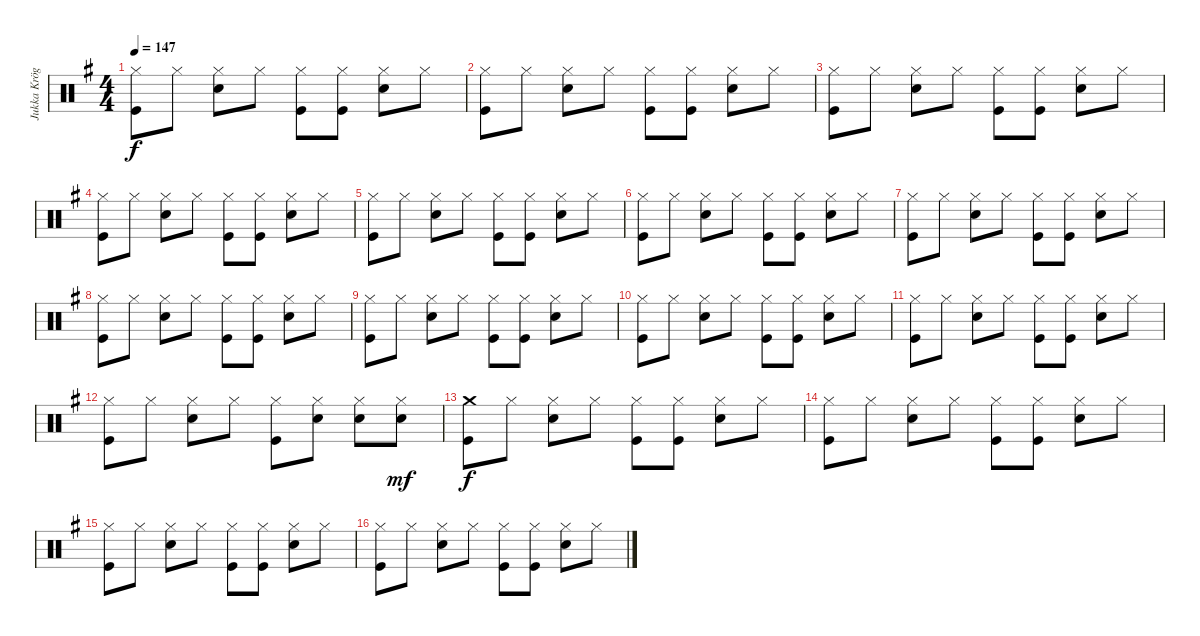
\track ("Jukka Kröger" "Jukka Krög") {instrument percussion}
\staff {score}
\articulation defaults
\ts (4 4)
\tempo 147
\clef neutral
\ks eminor
("Hi-Hat (closed)" "Kick (hit)").8{dy f} "Hi-Hat (closed)".8 ("Hi-Hat (closed)" "Snare (hit) 2").8 "Hi-Hat (closed)".8 ("Hi-Hat (closed)" "Kick (hit)").8 ("Hi-Hat (closed)" "Kick (hit)").8 ("Hi-Hat (closed)" "Snare (hit) 2").8 "Hi-Hat (closed)".8 |
("Hi-Hat (closed)" "Kick (hit)").8 "Hi-Hat (closed)".8 ("Hi-Hat (closed)" "Snare (hit) 2").8 "Hi-Hat (closed)".8 ("Hi-Hat (closed)" "Kick (hit)").8 ("Hi-Hat (closed)" "Kick (hit)").8 ("Hi-Hat (closed)" "Snare (hit) 2").8 "Hi-Hat (closed)".8 |
("Hi-Hat (closed)" "Kick (hit)").8 "Hi-Hat (closed)".8 ("Hi-Hat (closed)" "Snare (hit) 2").8 "Hi-Hat (closed)".8 ("Hi-Hat (closed)" "Kick (hit)").8 ("Hi-Hat (closed)" "Kick (hit)").8 ("Hi-Hat (closed)" "Snare (hit) 2").8 "Hi-Hat (closed)".8 |
("Hi-Hat (closed)" "Kick (hit)").8 "Hi-Hat (closed)".8 ("Hi-Hat (closed)" "Snare (hit) 2").8 "Hi-Hat (closed)".8 ("Hi-Hat (closed)" "Kick (hit)").8 ("Hi-Hat (closed)" "Kick (hit)").8 ("Hi-Hat (closed)" "Snare (hit) 2").8 "Hi-Hat (closed)".8 |
("Hi-Hat (closed)" "Kick (hit)").8 "Hi-Hat (closed)".8 ("Hi-Hat (closed)" "Snare (hit) 2").8 "Hi-Hat (closed)".8 ("Hi-Hat (closed)" "Kick (hit)").8 ("Hi-Hat (closed)" "Kick (hit)").8 ("Hi-Hat (closed)" "Snare (hit) 2").8 "Hi-Hat (closed)".8 |
("Hi-Hat (closed)" "Kick (hit)").8 "Hi-Hat (closed)".8 ("Hi-Hat (closed)" "Snare (hit) 2").8 "Hi-Hat (closed)".8 ("Hi-Hat (closed)" "Kick (hit)").8 ("Hi-Hat (closed)" "Kick (hit)").8 ("Hi-Hat (closed)" "Snare (hit) 2").8 "Hi-Hat (closed)".8 |
("Hi-Hat (closed)" "Kick (hit)").8 "Hi-Hat (closed)".8 ("Hi-Hat (closed)" "Snare (hit) 2").8 "Hi-Hat (closed)".8 ("Hi-Hat (closed)" "Kick (hit)").8 ("Hi-Hat (closed)" "Kick (hit)").8 ("Hi-Hat (closed)" "Snare (hit) 2").8 "Hi-Hat (closed)".8 |
("Hi-Hat (closed)" "Kick (hit)").8 "Hi-Hat (closed)".8 ("Hi-Hat (closed)" "Snare (hit) 2").8 "Hi-Hat (closed)".8 ("Hi-Hat (closed)" "Kick (hit)").8 ("Hi-Hat (closed)" "Kick (hit)").8 ("Hi-Hat (closed)" "Snare (hit) 2").8 "Hi-Hat (closed)".8 |
("Hi-Hat (closed)" "Kick (hit)").8 "Hi-Hat (closed)".8 ("Hi-Hat (closed)" "Snare (hit) 2").8 "Hi-Hat (closed)".8 ("Hi-Hat (closed)" "Kick (hit)").8 ("Hi-Hat (closed)" "Kick (hit)").8 ("Hi-Hat (closed)" "Snare (hit) 2").8 "Hi-Hat (closed)".8 |
("Hi-Hat (closed)" "Kick (hit)").8 "Hi-Hat (closed)".8 ("Hi-Hat (closed)" "Snare (hit) 2").8 "Hi-Hat (closed)".8 ("Hi-Hat (closed)" "Kick (hit)").8 ("Hi-Hat (closed)" "Kick (hit)").8 ("Hi-Hat (closed)" "Snare (hit) 2").8 "Hi-Hat (closed)".8 |
("Hi-Hat (closed)" "Kick (hit)").8 "Hi-Hat (closed)".8 ("Hi-Hat (closed)" "Snare (hit) 2").8 "Hi-Hat (closed)".8 ("Hi-Hat (closed)" "Kick (hit)").8 ("Hi-Hat (closed)" "Kick (hit)").8 ("Hi-Hat (closed)" "Snare (hit) 2").8 "Hi-Hat (closed)".8 |
("Hi-Hat (closed)" "Kick (hit)").8 "Hi-Hat (closed)".8 ("Hi-Hat (closed)" "Snare (hit) 2").8 "Hi-Hat (closed)".8 ("Hi-Hat (closed)" "Kick (hit)").8 ("Hi-Hat (closed)" "Snare (hit) 2").8 ("Hi-Hat (closed)" "Snare (hit) 2").8 ("Hi-Hat (closed)" "Snare (hit) 2").8{dy mf} |
("Crash medium (hit)" "Kick (hit)").8{dy f} "Hi-Hat (closed)".8 ("Hi-Hat (closed)" "Snare (hit) 2").8 "Hi-Hat (closed)".8 ("Hi-Hat (closed)" "Kick (hit)").8 ("Hi-Hat (closed)" "Kick (hit)").8 ("Hi-Hat (closed)" "Snare (hit) 2").8 "Hi-Hat (closed)".8 |
("Hi-Hat (closed)" "Kick (hit)").8 "Hi-Hat (closed)".8 ("Hi-Hat (closed)" "Snare (hit) 2").8 "Hi-Hat (closed)".8 ("Hi-Hat (closed)" "Kick (hit)").8 ("Hi-Hat (closed)" "Kick (hit)").8 ("Hi-Hat (closed)" "Snare (hit) 2").8 "Hi-Hat (closed)".8 |
("Hi-Hat (closed)" "Kick (hit)").8 "Hi-Hat (closed)".8 ("Hi-Hat (closed)" "Snare (hit) 2").8 "Hi-Hat (closed)".8 ("Hi-Hat (closed)" "Kick (hit)").8 ("Hi-Hat (closed)" "Kick (hit)").8 ("Hi-Hat (closed)" "Snare (hit) 2").8 "Hi-Hat (closed)".8 |
("Hi-Hat (closed)" "Kick (hit)").8 "Hi-Hat (closed)".8 ("Hi-Hat (closed)" "Snare (hit) 2").8 "Hi-Hat (closed)".8 ("Hi-Hat (closed)" "Kick (hit)").8 ("Hi-Hat (closed)" "Kick (hit)").8 ("Hi-Hat (closed)" "Snare (hit) 2").8 "Hi-Hat (closed)".8
